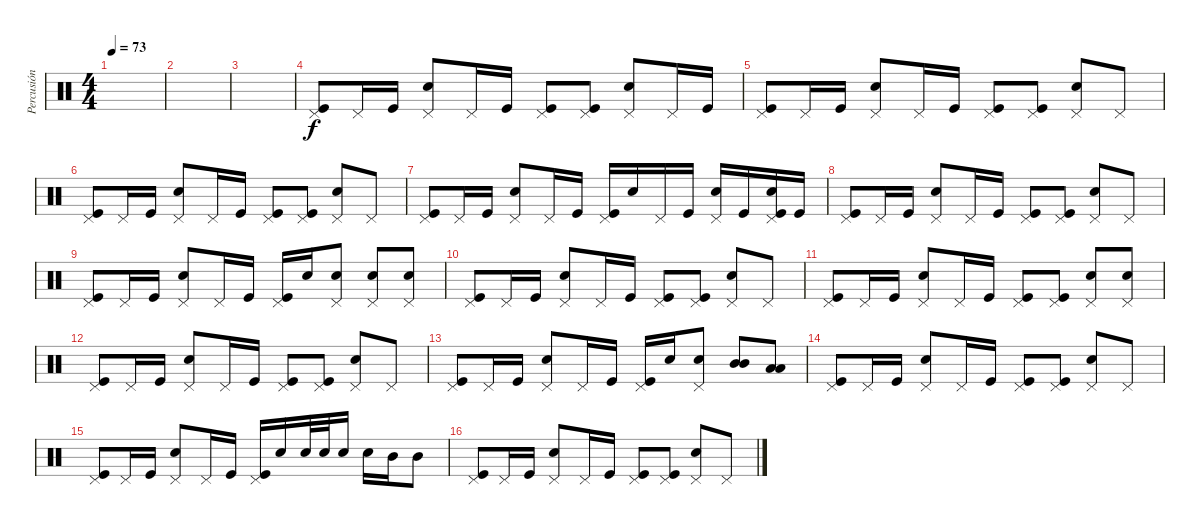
\track ("Percusión" "Percusión") {instrument percussion}
\staff {score}
\articulation defaults
\ts (4 4)
\tempo 73
\clef neutral
\ks c
|
|
|
("Pedal Hi-Hat (hit)" "Kick (hit)").8 "Pedal Hi-Hat (hit)".16 "Kick (hit)".16 ("Pedal Hi-Hat (hit)" "Electric Snare (hit)").8 "Pedal Hi-Hat (hit)".16 "Kick (hit)".16 ("Pedal Hi-Hat (hit)" "Kick (hit)").8 ("Pedal Hi-Hat (hit)" "Kick (hit)").8 ("Pedal Hi-Hat (hit)" "Electric Snare (hit)").8 "Pedal Hi-Hat (hit)".16 "Kick (hit)".16 |
("Pedal Hi-Hat (hit)" "Kick (hit)").8 "Pedal Hi-Hat (hit)".16 "Kick (hit)".16 ("Pedal Hi-Hat (hit)" "Electric Snare (hit)").8 "Pedal Hi-Hat (hit)".16 "Kick (hit)".16 ("Pedal Hi-Hat (hit)" "Kick (hit)").8 ("Pedal Hi-Hat (hit)" "Kick (hit)").8 ("Pedal Hi-Hat (hit)" "Electric Snare (hit)").8 "Pedal Hi-Hat (hit)".8 |
("Pedal Hi-Hat (hit)" "Kick (hit)").8 "Pedal Hi-Hat (hit)".16 "Kick (hit)".16 ("Pedal Hi-Hat (hit)" "Electric Snare (hit)").8 "Pedal Hi-Hat (hit)".16 "Kick (hit)".16 ("Pedal Hi-Hat (hit)" "Kick (hit)").8 ("Pedal Hi-Hat (hit)" "Kick (hit)").8 ("Pedal Hi-Hat (hit)" "Electric Snare (hit)").8 "Pedal Hi-Hat (hit)".8 |
("Pedal Hi-Hat (hit)" "Kick (hit)").8 "Pedal Hi-Hat (hit)".16 "Kick (hit)".16 ("Pedal Hi-Hat (hit)" "Electric Snare (hit)").8 "Pedal Hi-Hat (hit)".16 "Kick (hit)".16 ("Pedal Hi-Hat (hit)" "Kick (hit)").16 "Electric Snare (hit)".16 "Pedal Hi-Hat (hit)".16 "Kick (hit)".16 ("Pedal Hi-Hat (hit)" "Electric Snare (hit)").16 "Kick (hit)".16 ("Pedal Hi-Hat (hit)" "Electric Snare (hit)" "Kick (hit)").16 "Kick (hit)".16 |
("Pedal Hi-Hat (hit)" "Kick (hit)").8 "Pedal Hi-Hat (hit)".16 "Kick (hit)".16 ("Pedal Hi-Hat (hit)" "Electric Snare (hit)").8 "Pedal Hi-Hat (hit)".16 "Kick (hit)".16 ("Pedal Hi-Hat (hit)" "Kick (hit)").8 ("Pedal Hi-Hat (hit)" "Kick (hit)").8 ("Pedal Hi-Hat (hit)" "Electric Snare (hit)").8 "Pedal Hi-Hat (hit)".8 |
("Pedal Hi-Hat (hit)" "Kick (hit)").8 "Pedal Hi-Hat (hit)".16 "Kick (hit)".16 ("Pedal Hi-Hat (hit)" "Electric Snare (hit)").8 "Pedal Hi-Hat (hit)".16 "Kick (hit)".16 ("Pedal Hi-Hat (hit)" "Kick (hit)").16 "Electric Snare (hit)".16 ("Pedal Hi-Hat (hit)" "Electric Snare (hit)").8 ("Pedal Hi-Hat (hit)" "Electric Snare (hit)").8 ("Pedal Hi-Hat (hit)" "Electric Snare (hit)").8 |
("Pedal Hi-Hat (hit)" "Kick (hit)").8 "Pedal Hi-Hat (hit)".16 "Kick (hit)".16 ("Pedal Hi-Hat (hit)" "Electric Snare (hit)").8 "Pedal Hi-Hat (hit)".16 "Kick (hit)".16 ("Pedal Hi-Hat (hit)" "Kick (hit)").8 ("Pedal Hi-Hat (hit)" "Kick (hit)").8 ("Pedal Hi-Hat (hit)" "Electric Snare (hit)").8 "Pedal Hi-Hat (hit)".8 |
("Pedal Hi-Hat (hit)" "Kick (hit)").8 "Pedal Hi-Hat (hit)".16 "Kick (hit)".16 ("Pedal Hi-Hat (hit)" "Electric Snare (hit)").8 "Pedal Hi-Hat (hit)".16 "Kick (hit)".16 ("Pedal Hi-Hat (hit)" "Kick (hit)").8 ("Pedal Hi-Hat (hit)" "Kick (hit)").8 ("Pedal Hi-Hat (hit)" "Electric Snare (hit)").8 ("Pedal Hi-Hat (hit)" "Electric Snare (hit)").8 |
("Pedal Hi-Hat (hit)" "Kick (hit)").8 "Pedal Hi-Hat (hit)".16 "Kick (hit)".16 ("Pedal Hi-Hat (hit)" "Electric Snare (hit)").8 "Pedal Hi-Hat (hit)".16 "Kick (hit)".16 ("Pedal Hi-Hat (hit)" "Kick (hit)").8 ("Pedal Hi-Hat (hit)" "Kick (hit)").8 ("Pedal Hi-Hat (hit)" "Electric Snare (hit)").8 "Pedal Hi-Hat (hit)".8 |
("Pedal Hi-Hat (hit)" "Kick (hit)").8 "Pedal Hi-Hat (hit)".16 "Kick (hit)".16 ("Pedal Hi-Hat (hit)" "Electric Snare (hit)").8 "Pedal Hi-Hat (hit)".16 "Kick (hit)".16 ("Pedal Hi-Hat (hit)" "Kick (hit)").16 "Electric Snare (hit)".16 ("Pedal Hi-Hat (hit)" "Electric Snare (hit)").8 ("Mid Tom (hit)" "Mid Tom (hit)").8 ("Low Tom (hit)" "Low Tom (hit)").8 |
("Pedal Hi-Hat (hit)" "Kick (hit)").8 "Pedal Hi-Hat (hit)".16 "Kick (hit)".16 ("Pedal Hi-Hat (hit)" "Electric Snare (hit)").8 "Pedal Hi-Hat (hit)".16 "Kick (hit)".16 ("Pedal Hi-Hat (hit)" "Kick (hit)").8 ("Pedal Hi-Hat (hit)" "Kick (hit)").8 ("Pedal Hi-Hat (hit)" "Electric Snare (hit)").8 "Pedal Hi-Hat (hit)".8 |
("Pedal Hi-Hat (hit)" "Kick (hit)").8 "Pedal Hi-Hat (hit)".16 "Kick (hit)".16 ("Pedal Hi-Hat (hit)" "Electric Snare (hit)").8 "Pedal Hi-Hat (hit)".16 "Kick (hit)".16 ("Pedal Hi-Hat (hit)" "Kick (hit)").16 "Electric Snare (hit)".16 "Electric Snare (hit)".32 "Electric Snare (hit)".32 "Electric Snare (hit)".16 "Electric Snare (hit)".16 "Mid Tom (hit)".16 "Mid Tom (hit)".8 |
("Pedal Hi-Hat (hit)" "Kick (hit)").8 "Pedal Hi-Hat (hit)".16 "Kick (hit)".16 ("Pedal Hi-Hat (hit)" "Electric Snare (hit)").8 "Pedal Hi-Hat (hit)".16 "Kick (hit)".16 ("Pedal Hi-Hat (hit)" "Kick (hit)").8 ("Pedal Hi-Hat (hit)" "Kick (hit)").8 ("Pedal Hi-Hat (hit)" "Electric Snare (hit)").8 "Pedal Hi-Hat (hit)".8
